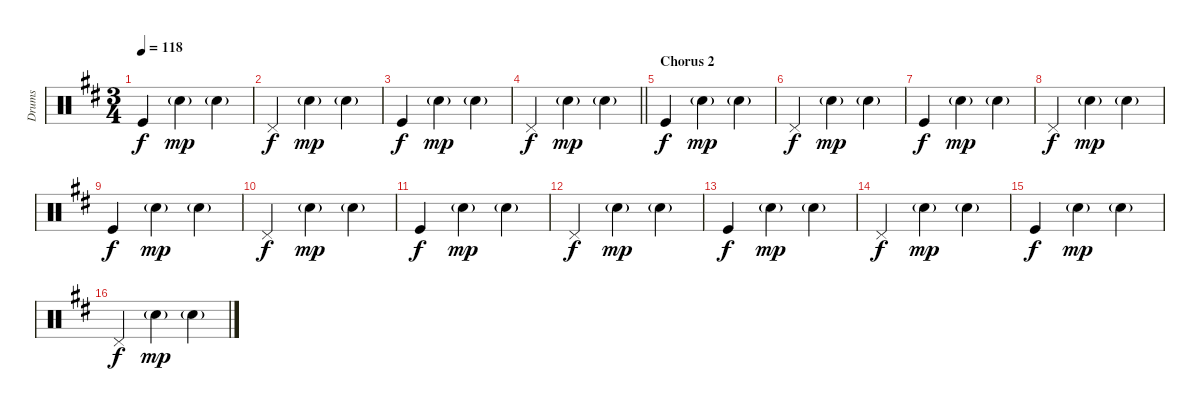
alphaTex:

\track ("Drums" "Drums") {instrument percussion}
\staff {score}
\articulation defaults
\ts (3 4)
\tempo 118
\clef neutral
\ks d "Kick (hit)".4{dy f} "Snare (hit) 2"{g}.4{dy mp} "Snare (hit) 2"{g}.4
|
"Pedal Hi-Hat (hit)".4{dy f} "Snare (hit) 2"{g}.4{dy mp} "Snare (hit) 2"{g}.4 |
"Kick (hit)".4{dy f} "Snare (hit) 2"{g}.4{dy mp} "Snare (hit) 2"{g}.4 |
\barLineRight lightlight "Pedal Hi-Hat (hit)".4{dy f} "Snare (hit) 2"{g}.4{dy mp} "Snare (hit) 2"{g}.4
|
\section ("" "Chorus 2")
"Kick (hit)".4{dy f} "Snare (hit) 2"{g}.4{dy mp} "Snare (hit) 2"{g}.4 |
"Pedal Hi-Hat (hit)".4{dy f} "Snare (hit) 2"{g}.4{dy mp} "Snare (hit) 2"{g}.4 |
"Kick (hit)".4{dy f} "Snare (hit) 2"{g}.4{dy mp} "Snare (hit) 2"{g}.4 |
"Pedal Hi-Hat (hit)".4{dy f} "Snare (hit) 2"{g}.4{dy mp} "Snare (hit) 2"{g}.4 |
"Kick (hit)".4{dy f} "Snare (hit) 2"{g}.4{dy mp} "Snare (hit) 2"{g}.4 |
"Pedal Hi-Hat (hit)".4{dy f} "Snare (hit) 2"{g}.4{dy mp} "Snare (hit) 2"{g}.4 |
"Kick (hit)".4{dy f} "Snare (hit) 2"{g}.4{dy mp} "Snare (hit) 2"{g}.4 |
"Pedal Hi-Hat (hit)".4{dy f} "Snare (hit) 2"{g}.4{dy mp} "Snare (hit) 2"{g}.4 |
"Kick (hit)".4{dy f} "Snare (hit) 2"{g}.4{dy mp} "Snare (hit) 2"{g}.4 |
"Pedal Hi-Hat (hit)".4{dy f} "Snare (hit) 2"{g}.4{dy mp} "Snare (hit) 2"{g}.4 |
"Kick (hit)".4{dy f} "Snare (hit) 2"{g}.4{dy mp} "Snare (hit) 2"{g}.4 |
"Pedal Hi-Hat (hit)".4{dy f} "Snare (hit) 2"{g}.4{dy mp} "Snare (hit) 2"{g}.4
